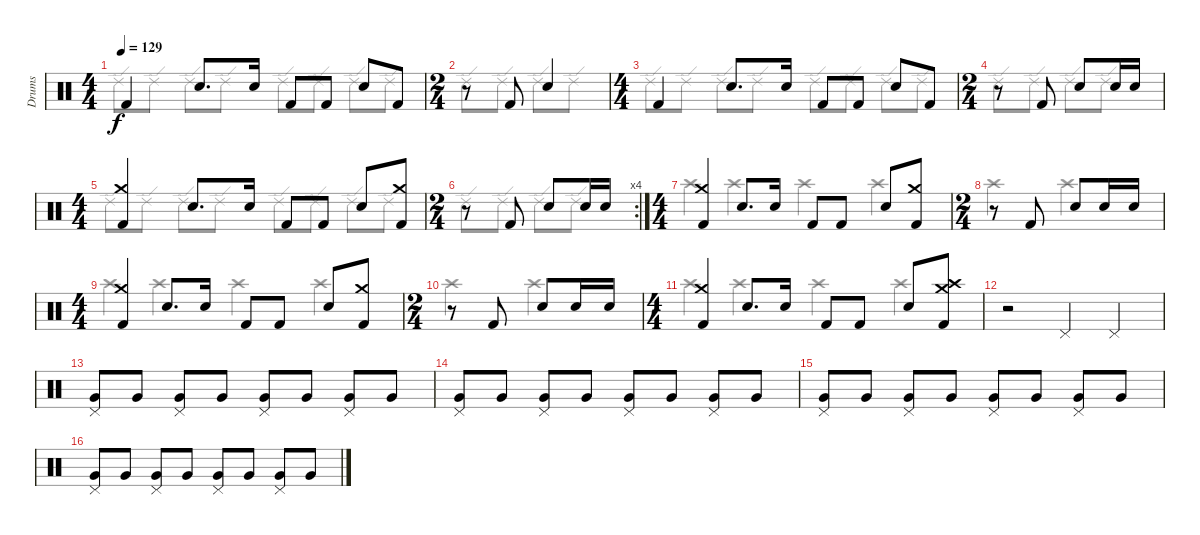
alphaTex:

\track ("Drums" "Drums") {instrument percussion}
\staff {score}
\articulation defaults
\voice
\ts (4 4)
\tempo 129
\clef neutral
\ks c "Kick (hit) 2".4{dy f} "Snare (hit) 2".8{d} "Snare (hit) 2".16 "Kick (hit) 2".8 "Kick (hit) 2".8 "Snare (hit) 2".8 "Kick (hit) 2".8
|
\ts (2 4)
r.8 "Kick (hit) 2".8 "Snare (hit) 2".4 |
\ts (4 4)
"Kick (hit) 2".4 "Snare (hit) 2".8{d} "Snare (hit) 2".16 "Kick (hit) 2".8 "Kick (hit) 2".8 "Snare (hit) 2".8 "Kick (hit) 2".8 |
\ts (2 4)
r.8 "Kick (hit) 2".8 "Snare (hit) 2".8 "Snare (hit) 2".16 "Snare (hit) 2".16 |
\ts (4 4)
("Crash medium (hit)" "Kick (hit) 2").4 "Snare (hit) 2".8{d} "Snare (hit) 2".16 "Kick (hit) 2".8 "Kick (hit) 2".8 "Snare (hit) 2".8 ("Crash medium (hit)" "Kick (hit) 2").8 |
\rc 4
\ts (2 4)
r.8 "Kick (hit) 2".8 "Snare (hit) 2".8 "Snare (hit) 2".16 "Snare (hit) 2".16 |
\ts (4 4)
("Crash medium (hit)" "Kick (hit) 2").4 "Snare (hit) 2".8{d} "Snare (hit) 2".16 "Kick (hit) 2".8 "Kick (hit) 2".8 "Snare (hit) 2".8 ("Crash medium (hit)" "Kick (hit) 2").8 |
\ts (2 4)
r.8 "Kick (hit) 2".8 "Snare (hit) 2".8 "Snare (hit) 2".16 "Snare (hit) 2".16 |
\ts (4 4)
("Crash medium (hit)" "Kick (hit) 2").4 "Snare (hit) 2".8{d} "Snare (hit) 2".16 "Kick (hit) 2".8 "Kick (hit) 2".8 "Snare (hit) 2".8 ("Crash medium (hit)" "Kick (hit) 2").8 |
\ts (2 4)
r.8 "Kick (hit) 2".8 "Snare (hit) 2".8 "Snare (hit) 2".16 "Snare (hit) 2".16 |
\ts (4 4)
("Crash medium (hit)" "Kick (hit) 2").4 "Snare (hit) 2".8{d} "Snare (hit) 2".16 "Kick (hit) 2".8 "Kick (hit) 2".8 "Snare (hit) 2".8 ("Crash medium (hit)" "Crash high (hit)" "Kick (hit) 2").8 |
r.2 "Pedal Hi-Hat (hit)".4 "Pedal Hi-Hat (hit)".4 |
("Pedal Hi-Hat (hit)" "Very Low Tom (hit)").8 "Very Low Tom (hit)".8 ("Pedal Hi-Hat (hit)" "Very Low Tom (hit)").8 "Very Low Tom (hit)".8 ("Pedal Hi-Hat (hit)" "Very Low Tom (hit)").8 "Very Low Tom (hit)".8 ("Pedal Hi-Hat (hit)" "Very Low Tom (hit)").8 "Very Low Tom (hit)".8 |
("Pedal Hi-Hat (hit)" "Very Low Tom (hit)").8 "Very Low Tom (hit)".8 ("Pedal Hi-Hat (hit)" "Very Low Tom (hit)").8 "Very Low Tom (hit)".8 ("Pedal Hi-Hat (hit)" "Very Low Tom (hit)").8 "Very Low Tom (hit)".8 ("Pedal Hi-Hat (hit)" "Very Low Tom (hit)").8 "Very Low Tom (hit)".8 |
("Pedal Hi-Hat (hit)" "Very Low Tom (hit)").8 "Very Low Tom (hit)".8 ("Pedal Hi-Hat (hit)" "Very Low Tom (hit)").8 "Very Low Tom (hit)".8 ("Pedal Hi-Hat (hit)" "Very Low Tom (hit)").8 "Very Low Tom (hit)".8 ("Pedal Hi-Hat (hit)" "Very Low Tom (hit)").8 "Very Low Tom (hit)".8 |
("Pedal Hi-Hat (hit)" "Very Low Tom (hit)").8 "Very Low Tom (hit)".8 ("Pedal Hi-Hat (hit)" "Very Low Tom (hit)").8 "Very Low Tom (hit)".8 ("Pedal Hi-Hat (hit)" "Very Low Tom (hit)").8 "Very Low Tom (hit)".8 ("Pedal Hi-Hat (hit)" "Very Low Tom (hit)").8 "Very Low Tom (hit)".8
\voice
\clef neutral
\ottava regular
\simile none
\ks c "Ride (edge) 2".8{dy f} "Ride (edge) 2".8 "Ride (edge) 2".8 "Ride (edge) 2".8 "Ride (edge) 2".8 "Ride (edge) 2".8 "Ride (edge) 2".8 "Ride (edge) 2".8
|
"Ride (edge) 2".8 "Ride (edge) 2".8 "Ride (edge) 2".8 "Ride (edge) 2".8 |
"Ride (edge) 2".8 "Ride (edge) 2".8 "Ride (edge) 2".8 "Ride (edge) 2".8 "Ride (edge) 2".8 "Ride (edge) 2".8 "Ride (edge) 2".8 "Ride (edge) 2".8 |
"Ride (edge) 2".8 "Ride (edge) 2".8 "Ride (edge) 2".8 "Ride (edge) 2".8 |
"Ride (edge) 2".8 "Ride (edge) 2".8 "Ride (edge) 2".8 "Ride (edge) 2".8 "Ride (edge) 2".8 "Ride (edge) 2".8 "Ride (edge) 2".8 "Ride (edge) 2".8 |
"Ride (edge) 2".8 "Ride (edge) 2".8 "Ride (edge) 2".8 "Ride (edge) 2".8 |
"Crash high (hit)".4 "Crash high (hit)".4 "Crash high (hit)".4 "Crash high (hit)".4 |
"Crash high (hit)".4 "Crash high (hit)".4 |
"Crash high (hit)".4 "Crash high (hit)".4 "Crash high (hit)".4 "Crash high (hit)".4 |
"Crash high (hit)".4 "Crash high (hit)".4 |
"Crash high (hit)".4 "Crash high (hit)".4 "Crash high (hit)".4 "Crash high (hit)".4 |
|
|
|
|
